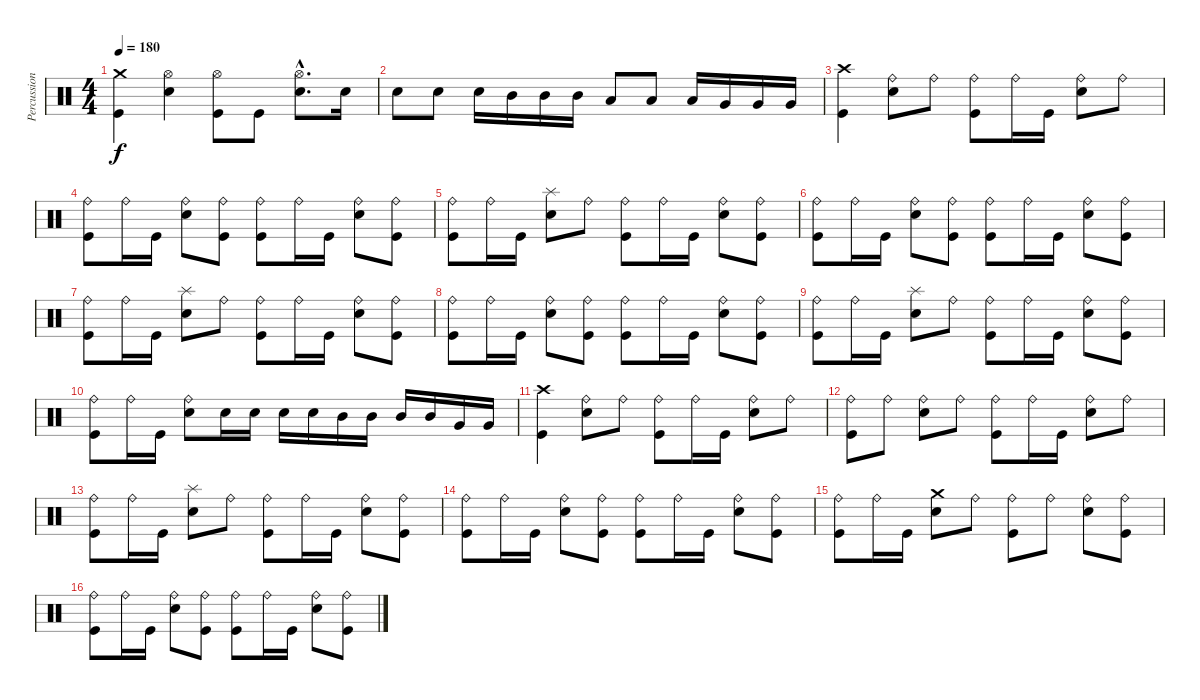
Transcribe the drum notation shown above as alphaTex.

\track ("Percussions" "Percussion") {instrument percussion}
\staff {score}
\articulation defaults
\ts (4 4)
\tempo 180
\clef neutral
\ks c
("Kick (hit)" "Crash medium (hit)").4{dy f} ("Electric Snare (hit)" "Hi-Hat (open)").4 ("Kick (hit)" "Hi-Hat (open)").8 "Kick (hit)".8 ("Electric Snare (hit)"{hac} "Hi-Hat (open)"{hac}).8{d} "Electric Snare (hit)".16 |
"Electric Snare (hit)".8 "Electric Snare (hit)".8 "Electric Snare (hit)".16 "Mid Tom (hit)".16 "Mid Tom (hit)".16 "Mid Tom (hit)".16 "Low Tom (hit)".8 "Low Tom (hit)".8 "Low Tom (hit)".16 "Very Low Tom (hit)".16 "Very Low Tom (hit)".16 "Very Low Tom (hit)".16 |
("Kick (hit)" "Crash high (hit)").4 ("Electric Snare (hit)" "Ride (bell)").8 "Ride (bell)".8 ("Kick (hit)" "Ride (bell)").8 "Ride (bell)".16 "Kick (hit)".16 ("Electric Snare (hit)" "Ride (bell)").8 "Ride (bell)".8 |
("Kick (hit)" "Ride (bell)").8 "Ride (bell)".16 "Kick (hit)".16 ("Electric Snare (hit)" "Ride (bell)").8 ("Kick (hit)" "Ride (bell)").8 ("Kick (hit)" "Ride (bell)").8 "Ride (bell)".16 "Kick (hit)".16 ("Electric Snare (hit)" "Ride (bell)").8 ("Kick (hit)" "Ride (bell)").8 |
("Kick (hit)" "Ride (bell)").8 "Ride (bell)".16 "Kick (hit)".16 ("Electric Snare (hit)" "Splash (hit)").8 "Ride (bell)".8 ("Kick (hit)" "Ride (bell)").8 "Ride (bell)".16 "Kick (hit)".16 ("Electric Snare (hit)" "Ride (bell)").8 ("Kick (hit)" "Ride (bell)").8 |
("Kick (hit)" "Ride (bell)").8 "Ride (bell)".16 "Kick (hit)".16 ("Electric Snare (hit)" "Ride (bell)").8 ("Kick (hit)" "Ride (bell)").8 ("Kick (hit)" "Ride (bell)").8 "Ride (bell)".16 "Kick (hit)".16 ("Electric Snare (hit)" "Ride (bell)").8 ("Kick (hit)" "Ride (bell)").8 |
("Kick (hit)" "Ride (bell)").8 "Ride (bell)".16 "Kick (hit)".16 ("Electric Snare (hit)" "Splash (hit)").8 "Ride (bell)".8 ("Kick (hit)" "Ride (bell)").8 "Ride (bell)".16 "Kick (hit)".16 ("Electric Snare (hit)" "Ride (bell)").8 ("Kick (hit)" "Ride (bell)").8 |
("Kick (hit)" "Ride (bell)").8 "Ride (bell)".16 "Kick (hit)".16 ("Electric Snare (hit)" "Ride (bell)").8 ("Kick (hit)" "Ride (bell)").8 ("Kick (hit)" "Ride (bell)").8 "Ride (bell)".16 "Kick (hit)".16 ("Electric Snare (hit)" "Ride (bell)").8 ("Kick (hit)" "Ride (bell)").8 |
("Kick (hit)" "Ride (bell)").8 "Ride (bell)".16 "Kick (hit)".16 ("Electric Snare (hit)" "Splash (hit)").8 "Ride (bell)".8 ("Kick (hit)" "Ride (bell)").8 "Ride (bell)".16 "Kick (hit)".16 ("Electric Snare (hit)" "Ride (bell)").8 ("Kick (hit)" "Ride (bell)").8 |
("Kick (hit)" "Ride (bell)").8 "Ride (bell)".16 "Kick (hit)".16 ("Electric Snare (hit)" "Ride (bell)").8 "Electric Snare (hit)".16 "Electric Snare (hit)".16 "Electric Snare (hit)".16 "Electric Snare (hit)".16 "Mid Tom (hit)".16 "Mid Tom (hit)".16 "Mid Tom (hit)".16 "Mid Tom (hit)".16 "Very Low Tom (hit)".16 "Very Low Tom (hit)".16 |
("Kick (hit)" "Crash high (hit)").4 ("Electric Snare (hit)" "Ride (bell)").8 "Ride (bell)".8 ("Kick (hit)" "Ride (bell)").8 "Ride (bell)".16 "Kick (hit)".16 ("Electric Snare (hit)" "Ride (bell)").8 "Ride (bell)".8 |
("Kick (hit)" "Ride (bell)").8 "Ride (bell)".8 ("Electric Snare (hit)" "Ride (bell)").8 "Ride (bell)".8 ("Kick (hit)" "Ride (bell)").8 "Ride (bell)".16 "Kick (hit)".16 ("Electric Snare (hit)" "Ride (bell)").8 "Ride (bell)".8 |
("Kick (hit)" "Ride (bell)").8 "Ride (bell)".16 "Kick (hit)".16 ("Electric Snare (hit)" "Splash (hit)").8 "Ride (bell)".8 ("Kick (hit)" "Ride (bell)").8 "Ride (bell)".16 "Kick (hit)".16 ("Electric Snare (hit)" "Ride (bell)").8 ("Kick (hit)" "Ride (bell)").8 |
("Kick (hit)" "Ride (bell)").8 "Ride (bell)".16 "Kick (hit)".16 ("Electric Snare (hit)" "Ride (bell)").8 ("Kick (hit)" "Ride (bell)").8 ("Kick (hit)" "Ride (bell)").8 "Ride (bell)".16 "Kick (hit)".16 ("Electric Snare (hit)" "Ride (bell)").8 ("Kick (hit)" "Ride (bell)").8 |
("Kick (hit)" "Ride (bell)").8 "Ride (bell)".16 "Kick (hit)".16 ("Electric Snare (hit)" "Crash medium (hit)").8 "Ride (bell)".8 ("Kick (hit)" "Ride (bell)").8 "Ride (bell)".8 ("Electric Snare (hit)" "Ride (bell)").8 ("Kick (hit)" "Ride (bell)").8 |
("Kick (hit)" "Ride (bell)").8 "Ride (bell)".16 "Kick (hit)".16 ("Electric Snare (hit)" "Ride (bell)").8 ("Kick (hit)" "Ride (bell)").8 ("Kick (hit)" "Ride (bell)").8 "Ride (bell)".16 "Kick (hit)".16 ("Electric Snare (hit)" "Ride (bell)").8 ("Kick (hit)" "Ride (bell)").8
